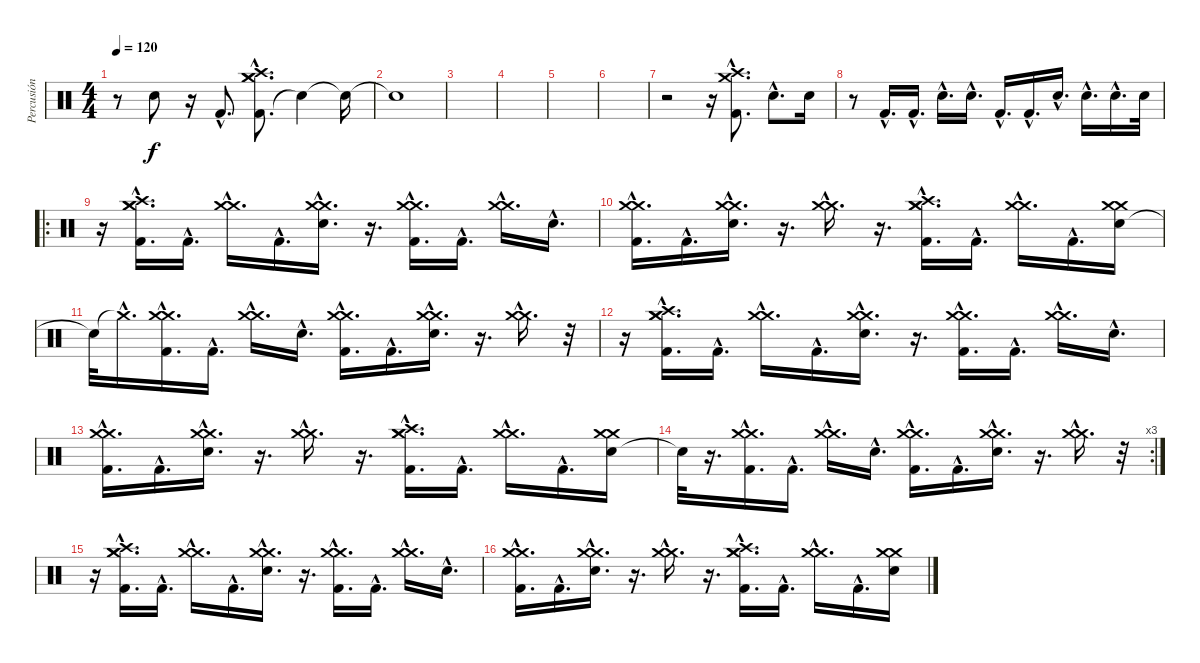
\track ("Percusión" "Percusión") {instrument percussion}
\staff {score}
\articulation defaults
\ts (4 4)
\tempo 120
\clef neutral
\ks c
r.8{dy f} "Electric Snare (hit)".8 r.16 "Kick (hit) 2"{hac}.8{d} ("Kick (hit) 2"{hac} "Crash high (hit)"{hac} "Crash medium (hit)"{hac} "Crash medium (hit)"{hac}).8{d} "Snare (hit)"{t}.4 "Snare (hit)"{t}.16 |
"Snare (hit)"{t}.1 |
|
|
|
|
r.2 r.16 ("Kick (hit) 2"{hac} "Crash medium (hit)"{hac} "Crash high (hit)"{hac}).8{d} "Electric Snare (hit)"{hac}.8{d} "Electric Snare (hit)".16 |
r.8 "Kick (hit) 2"{hac}.16{d} "Kick (hit) 2"{hac}.16{d} "Electric Snare (hit)"{hac}.16{d} "Electric Snare (hit)"{hac}.16{d} "Kick (hit) 2"{hac}.16{d} "Kick (hit) 2"{hac}.16{d} "Electric Snare (hit)"{hac}.16{d} "Electric Snare (hit)"{hac}.16{d} "Electric Snare (hit)"{hac}.16{d} "Electric Snare (hit)".32 |
\ro
r.16 ("Kick (hit) 2"{hac} "Crash high (hit)"{hac} "Crash medium (hit)"{hac} "Crash medium (hit)"{hac}).16{d} "Kick (hit) 2"{hac}.16{d} ("Crash medium (hit)"{hac} "Crash medium (hit)"{hac}).16{d} "Kick (hit) 2"{hac}.16{d} ("Electric Snare (hit)"{hac} "Crash medium (hit)"{hac} "Crash medium (hit)"{hac}).16{d} r.16{d} ("Kick (hit) 2"{hac} "Crash medium (hit)"{hac} "Crash medium (hit)"{hac}).16{d} "Kick (hit) 2"{hac}.16{d} ("Crash medium (hit)"{hac} "Crash medium (hit)"{hac}).16{d} "Electric Snare (hit)"{hac}.16{d} |
("Kick (hit) 2"{hac} "Crash medium (hit)"{hac} "Crash medium (hit)"{hac}).16{d} "Kick (hit) 2"{hac}.16{d} ("Electric Snare (hit)"{hac} "Crash medium (hit)"{hac} "Crash medium (hit)"{hac}).16{d} r.16{d} ("Crash medium (hit)"{hac} "Crash medium (hit)"{hac}).16{d} r.16{d} ("Kick (hit) 2"{hac} "Crash high (hit)"{hac} "Crash medium (hit)"{hac} "Crash medium (hit)"{hac}).16{d} "Kick (hit) 2"{hac}.16{d} ("Crash medium (hit)"{hac} "Crash medium (hit)"{hac}).16{d} "Kick (hit) 2"{hac}.16{d} ("Electric Snare (hit)" "Crash medium (hit)" "Crash medium (hit)").16 |
"Snare (hit)"{t}.32 "Crash medium (hit)"{hac t}.16{d} ("Kick (hit) 2"{hac} "Crash medium (hit)"{hac} "Crash medium (hit)"{hac}).16{d} "Kick (hit) 2"{hac}.16{d} ("Crash medium (hit)"{hac} "Crash medium (hit)"{hac}).16{d} "Electric Snare (hit)"{hac}.16{d} ("Kick (hit) 2"{hac} "Crash medium (hit)"{hac} "Crash medium (hit)"{hac}).16{d} "Kick (hit) 2"{hac}.16{d} ("Electric Snare (hit)"{hac} "Crash medium (hit)"{hac} "Crash medium (hit)"{hac}).16{d} r.16{d} ("Crash medium (hit)"{hac} "Crash medium (hit)"{hac}).16{d} r.32 |
r.16 ("Kick (hit) 2"{hac} "Crash high (hit)"{hac} "Crash medium (hit)"{hac} "Crash medium (hit)"{hac}).16{d} "Kick (hit) 2"{hac}.16{d} ("Crash medium (hit)"{hac} "Crash medium (hit)"{hac}).16{d} "Kick (hit) 2"{hac}.16{d} ("Electric Snare (hit)"{hac} "Crash medium (hit)"{hac} "Crash medium (hit)"{hac}).16{d} r.16{d} ("Kick (hit) 2"{hac} "Crash medium (hit)"{hac} "Crash medium (hit)"{hac}).16{d} "Kick (hit) 2"{hac}.16{d} ("Crash medium (hit)"{hac} "Crash medium (hit)"{hac}).16{d} "Electric Snare (hit)"{hac}.16{d} |
("Kick (hit) 2"{hac} "Crash medium (hit)"{hac} "Crash medium (hit)"{hac}).16{d} "Kick (hit) 2"{hac}.16{d} ("Electric Snare (hit)"{hac} "Crash medium (hit)"{hac} "Crash medium (hit)"{hac}).16{d} r.16{d} ("Crash medium (hit)"{hac} "Crash medium (hit)"{hac}).16{d} r.16{d} ("Kick (hit) 2"{hac} "Crash high (hit)"{hac} "Crash medium (hit)"{hac} "Crash medium (hit)"{hac}).16{d} "Kick (hit) 2"{hac}.16{d} ("Crash medium (hit)"{hac} "Crash medium (hit)"{hac}).16{d} "Kick (hit) 2"{hac}.16{d} ("Electric Snare (hit)" "Crash medium (hit)" "Crash medium (hit)").16 |
\rc 3 "Snare (hit)"{t}.32
r.16{d} ("Kick (hit) 2"{hac} "Crash medium (hit)"{hac} "Crash medium (hit)"{hac}).16{d} "Kick (hit) 2"{hac}.16{d} ("Crash medium (hit)"{hac} "Crash medium (hit)"{hac}).16{d} "Electric Snare (hit)"{hac}.16{d} ("Kick (hit) 2"{hac} "Crash medium (hit)"{hac} "Crash medium (hit)"{hac}).16{d} "Kick (hit) 2"{hac}.16{d} ("Electric Snare (hit)"{hac} "Crash medium (hit)"{hac} "Crash medium (hit)"{hac}).16{d} r.16{d} ("Crash medium (hit)"{hac} "Crash medium (hit)"{hac}).16{d} r.32 |
r.16 ("Kick (hit) 2"{hac} "Crash high (hit)"{hac} "Crash medium (hit)"{hac} "Crash medium (hit)"{hac}).16{d} "Kick (hit) 2"{hac}.16{d} ("Crash medium (hit)"{hac} "Crash medium (hit)"{hac}).16{d} "Kick (hit) 2"{hac}.16{d} ("Electric Snare (hit)"{hac} "Crash medium (hit)"{hac} "Crash medium (hit)"{hac}).16{d} r.16{d} ("Kick (hit) 2"{hac} "Crash medium (hit)"{hac} "Crash medium (hit)"{hac}).16{d} "Kick (hit) 2"{hac}.16{d} ("Crash medium (hit)"{hac} "Crash medium (hit)"{hac}).16{d} "Electric Snare (hit)"{hac}.16{d} |
("Kick (hit) 2"{hac} "Crash medium (hit)"{hac} "Crash medium (hit)"{hac}).16{d} "Kick (hit) 2"{hac}.16{d} ("Electric Snare (hit)"{hac} "Crash medium (hit)"{hac} "Crash medium (hit)"{hac}).16{d} r.16{d} ("Crash medium (hit)"{hac} "Crash medium (hit)"{hac}).16{d} r.16{d} ("Kick (hit) 2"{hac} "Crash high (hit)"{hac} "Crash medium (hit)"{hac} "Crash medium (hit)"{hac}).16{d} "Kick (hit) 2"{hac}.16{d} ("Crash medium (hit)"{hac} "Crash medium (hit)"{hac}).16{d} "Kick (hit) 2"{hac}.16{d} ("Electric Snare (hit)" "Crash medium (hit)" "Crash medium (hit)").16
